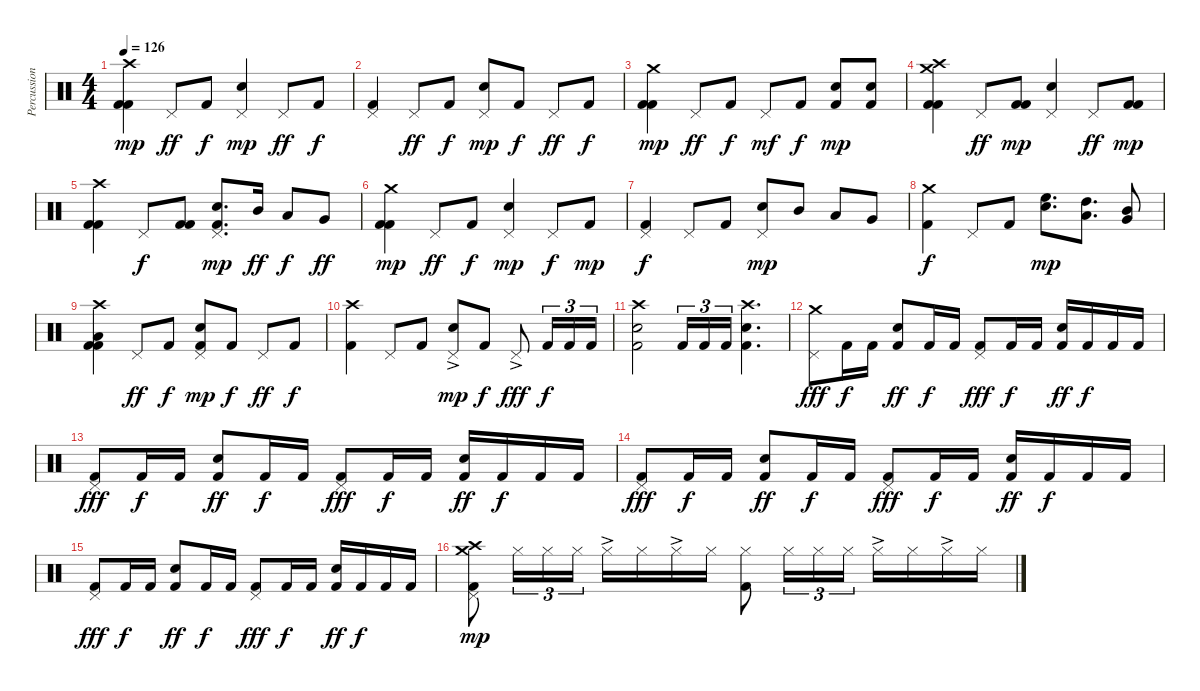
\track ("Percussion" "Percussion") {instrument percussion}
\staff {score}
\articulation defaults
\ts (4 4)
\tempo 126
\clef neutral
\ks c
("Crash high (hit)" "Kick (hit) 2" "Kick (hit) 2").4{dy mp} "Pedal Hi-Hat (hit)".8{dy ff} "Kick (hit) 2".8{dy f} ("Pedal Hi-Hat (hit)" "Electric Snare (hit)").4{dy mp} "Pedal Hi-Hat (hit)".8{dy ff} "Kick (hit) 2".8{dy f} |
("Pedal Hi-Hat (hit)" "Kick (hit) 2").4 "Pedal Hi-Hat (hit)".8{dy ff} "Kick (hit) 2".8{dy f} ("Pedal Hi-Hat (hit)" "Electric Snare (hit)").8{dy mp} "Kick (hit) 2".8{dy f} "Pedal Hi-Hat (hit)".8{dy ff} "Kick (hit) 2".8{dy f} |
("Crash medium (hit)" "Kick (hit) 2" "Kick (hit) 2").4{dy mp} "Pedal Hi-Hat (hit)".8{dy ff} "Kick (hit) 2".8{dy f} "Pedal Hi-Hat (hit)".8{dy mf} "Kick (hit) 2".8{dy f} ("Electric Snare (hit)" "Kick (hit) 2").8{dy mp} ("Electric Snare (hit)" "Kick (hit) 2").8 |
("Crash medium (hit)" "Crash high (hit)" "Kick (hit) 2" "Kick (hit) 2").4 "Pedal Hi-Hat (hit)".8{dy ff} ("Kick (hit) 2" "Kick (hit) 2").8{dy mp} ("Pedal Hi-Hat (hit)" "Electric Snare (hit)").4 "Pedal Hi-Hat (hit)".8{dy ff} ("Kick (hit) 2" "Kick (hit) 2").8{dy mp} |
("Crash high (hit)" "Kick (hit) 2" "Kick (hit) 2").4 "Pedal Hi-Hat (hit)".8{dy f} ("Kick (hit) 2" "Kick (hit) 2").8 ("Pedal Hi-Hat (hit)" "Electric Snare (hit)" "Kick (hit) 2").8{d dy mp} "Mid Tom (hit)".16{dy ff} "Low Tom (hit)".8{dy f} "Very Low Tom (hit)".8{dy ff} |
("Crash medium (hit)" "Kick (hit) 2" "Kick (hit) 2").4{dy mp} "Pedal Hi-Hat (hit)".8{dy ff} "Kick (hit) 2".8{dy f} ("Pedal Hi-Hat (hit)" "Electric Snare (hit)").4{dy mp} "Pedal Hi-Hat (hit)".8{dy f} "Kick (hit) 2".8{dy mp} |
("Pedal Hi-Hat (hit)" "Kick (hit) 2").4{dy f} "Pedal Hi-Hat (hit)".8 "Kick (hit) 2".8 ("Pedal Hi-Hat (hit)" "Electric Snare (hit)").8{dy mp} "Mid Tom (hit)".8 "Low Tom (hit)".8 "Very Low Tom (hit)".8 |
("Crash medium (hit)" "Kick (hit) 2").4{dy f} "Pedal Hi-Hat (hit)".8 "Kick (hit) 2".8 ("High Floor Tom (hit)" "Electric Snare (hit)").8{d dy mp} ("Low Floor Tom (hit)" "High Tom (hit)").8{d} ("Very Low Tom (hit)" "Mid Tom (hit)").8 |
("Crash high (hit)" "Low Tom (hit)" "Kick (hit) 2" "Kick (hit) 2").4 "Pedal Hi-Hat (hit)".8{dy ff} "Kick (hit) 2".8{dy f} ("Pedal Hi-Hat (hit)" "Electric Snare (hit)" "Kick (hit) 2").8{dy mp} "Kick (hit) 2".8{dy f} "Pedal Hi-Hat (hit)".8{dy ff} "Kick (hit) 2".8{dy f} |
("Crash high (hit)" "Kick (hit) 2").4 "Pedal Hi-Hat (hit)".8 "Kick (hit) 2".8 ("Pedal Hi-Hat (hit)"{ac} "Electric Snare (hit)").8{dy mp} "Kick (hit) 2".8{dy f} "Pedal Hi-Hat (hit)"{ac}.8{dy fff} "Kick (hit) 2".16{tu (3 2) dy f} "Kick (hit) 2".16{tu (3 2)} "Kick (hit) 2".16{tu (3 2)} |
("Crash high (hit)" "Electric Snare (hit)" "Kick (hit) 2").2 "Kick (hit) 2".16{tu (3 2)} "Kick (hit) 2".16{tu (3 2)} "Kick (hit) 2".16{tu (3 2)} ("Crash high (hit)" "Electric Snare (hit)" "Kick (hit) 2").4{d} |
("Crash medium (hit)" "Pedal Hi-Hat (hit)").8{dy fff} "Kick (hit) 2".16{dy f} "Kick (hit) 2".16 ("Kick (hit) 2" "Electric Snare (hit)").8{dy ff} "Kick (hit) 2".16{dy f} "Kick (hit) 2".16 ("Kick (hit) 2" "Pedal Hi-Hat (hit)").8{dy fff} "Kick (hit) 2".16{dy f} "Kick (hit) 2".16 ("Kick (hit) 2" "Electric Snare (hit)").16{dy ff} "Kick (hit) 2".16{dy f} "Kick (hit) 2".16 "Kick (hit) 2".16 |
("Kick (hit) 2" "Pedal Hi-Hat (hit)").8{dy fff} "Kick (hit) 2".16{dy f} "Kick (hit) 2".16 ("Kick (hit) 2" "Electric Snare (hit)").8{dy ff} "Kick (hit) 2".16{dy f} "Kick (hit) 2".16 ("Kick (hit) 2" "Pedal Hi-Hat (hit)").8{dy fff} "Kick (hit) 2".16{dy f} "Kick (hit) 2".16 ("Kick (hit) 2" "Electric Snare (hit)").16{dy ff} "Kick (hit) 2".16{dy f} "Kick (hit) 2".16 "Kick (hit) 2".16 |
("Kick (hit) 2" "Pedal Hi-Hat (hit)").8{dy fff} "Kick (hit) 2".16{dy f} "Kick (hit) 2".16 ("Kick (hit) 2" "Electric Snare (hit)").8{dy ff} "Kick (hit) 2".16{dy f} "Kick (hit) 2".16 ("Kick (hit) 2" "Pedal Hi-Hat (hit)").8{dy fff} "Kick (hit) 2".16{dy f} "Kick (hit) 2".16 ("Kick (hit) 2" "Electric Snare (hit)").16{dy ff} "Kick (hit) 2".16{dy f} "Kick (hit) 2".16 "Kick (hit) 2".16 |
("Kick (hit) 2" "Pedal Hi-Hat (hit)").8{dy fff} "Kick (hit) 2".16{dy f} "Kick (hit) 2".16 ("Kick (hit) 2" "Electric Snare (hit)").8{dy ff} "Kick (hit) 2".16{dy f} "Kick (hit) 2".16 ("Kick (hit) 2" "Pedal Hi-Hat (hit)").8{dy fff} "Kick (hit) 2".16{dy f} "Kick (hit) 2".16 ("Kick (hit) 2" "Electric Snare (hit)").16{dy ff} "Kick (hit) 2".16{dy f} "Kick (hit) 2".16 "Kick (hit) 2".16 |
("Crash medium (hit)" "Crash high (hit)" "Pedal Hi-Hat (hit)" "Kick (hit) 2").8{dy mp} "Hi-Hat (closed)".16{tu (3 2)} "Hi-Hat (closed)".16{tu (3 2)} "Hi-Hat (closed)".16{tu (3 2)} "Hi-Hat (closed)"{ac}.16 "Hi-Hat (closed)".16 "Hi-Hat (closed)"{ac}.16 "Hi-Hat (closed)".16 ("Hi-Hat (closed)" "Kick (hit) 2").8 "Hi-Hat (closed)".16{tu (3 2)} "Hi-Hat (closed)".16{tu (3 2)} "Hi-Hat (closed)".16{tu (3 2)} "Hi-Hat (closed)"{ac}.16 "Hi-Hat (closed)".16 "Hi-Hat (closed)"{ac}.16 "Hi-Hat (closed)".16
